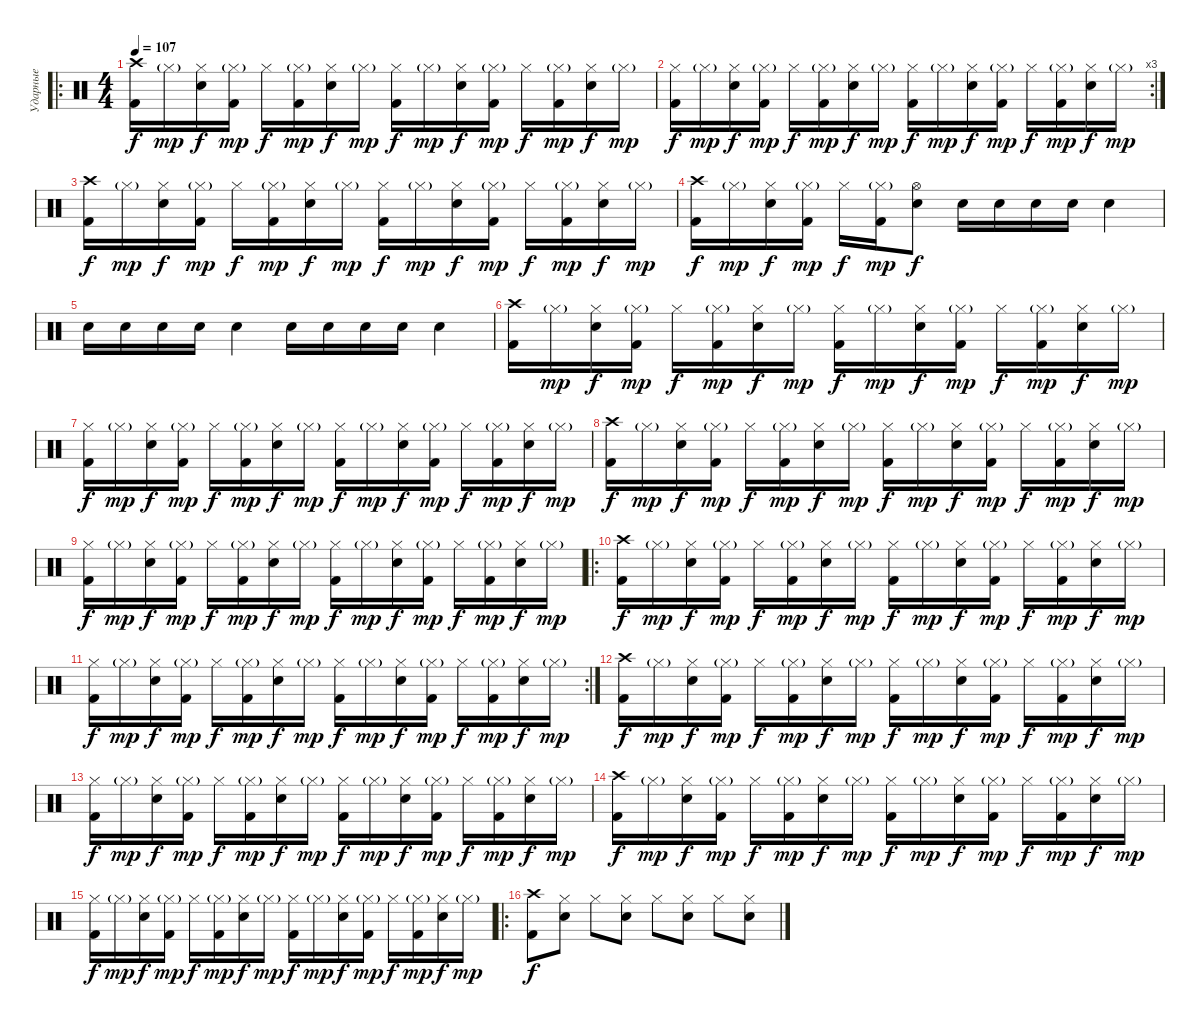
\track ("Ударные" "Ударные") {instrument percussion}
\staff {score}
\articulation defaults
\ro
\ts (4 4)
\tempo 107
\clef neutral
\ks c
("Kick (hit) 2" "Crash high (hit)").16{dy f} "Hi-Hat (closed)"{g}.16{dy mp} ("Electric Snare (hit)" "Hi-Hat (closed)").16{dy f} ("Kick (hit) 2" "Hi-Hat (closed)"{g}).16{dy mp} "Hi-Hat (closed)".16{dy f} ("Kick (hit) 2" "Hi-Hat (closed)"{g}).16{dy mp} ("Electric Snare (hit)" "Hi-Hat (closed)").16{dy f} "Hi-Hat (closed)"{g}.16{dy mp} ("Kick (hit) 2" "Hi-Hat (closed)").16{dy f} "Hi-Hat (closed)"{g}.16{dy mp} ("Electric Snare (hit)" "Hi-Hat (closed)").16{dy f} ("Kick (hit) 2" "Hi-Hat (closed)"{g}).16{dy mp} "Hi-Hat (closed)".16{dy f} ("Kick (hit) 2" "Hi-Hat (closed)"{g}).16{dy mp} ("Electric Snare (hit)" "Hi-Hat (closed)").16{dy f} "Hi-Hat (closed)"{g}.16{dy mp} |
\rc 3
("Kick (hit) 2" "Hi-Hat (closed)").16{dy f} "Hi-Hat (closed)"{g}.16{dy mp} ("Electric Snare (hit)" "Hi-Hat (closed)").16{dy f} ("Kick (hit) 2" "Hi-Hat (closed)"{g}).16{dy mp} "Hi-Hat (closed)".16{dy f} ("Kick (hit) 2" "Hi-Hat (closed)"{g}).16{dy mp} ("Electric Snare (hit)" "Hi-Hat (closed)").16{dy f} "Hi-Hat (closed)"{g}.16{dy mp} ("Kick (hit) 2" "Hi-Hat (closed)").16{dy f} "Hi-Hat (closed)"{g}.16{dy mp} ("Electric Snare (hit)" "Hi-Hat (closed)").16{dy f} ("Kick (hit) 2" "Hi-Hat (closed)"{g}).16{dy mp} "Hi-Hat (closed)".16{dy f} ("Kick (hit) 2" "Hi-Hat (closed)"{g}).16{dy mp} ("Electric Snare (hit)" "Hi-Hat (closed)").16{dy f} "Hi-Hat (closed)"{g}.16{dy mp} |
("Kick (hit) 2" "Crash high (hit)").16{dy f} "Hi-Hat (closed)"{g}.16{dy mp} ("Electric Snare (hit)" "Hi-Hat (closed)").16{dy f} ("Kick (hit) 2" "Hi-Hat (closed)"{g}).16{dy mp} "Hi-Hat (closed)".16{dy f} ("Kick (hit) 2" "Hi-Hat (closed)"{g}).16{dy mp} ("Electric Snare (hit)" "Hi-Hat (closed)").16{dy f} "Hi-Hat (closed)"{g}.16{dy mp} ("Kick (hit) 2" "Hi-Hat (closed)").16{dy f} "Hi-Hat (closed)"{g}.16{dy mp} ("Electric Snare (hit)" "Hi-Hat (closed)").16{dy f} ("Kick (hit) 2" "Hi-Hat (closed)"{g}).16{dy mp} "Hi-Hat (closed)".16{dy f} ("Kick (hit) 2" "Hi-Hat (closed)"{g}).16{dy mp} ("Electric Snare (hit)" "Hi-Hat (closed)").16{dy f} "Hi-Hat (closed)"{g}.16{dy mp} |
("Kick (hit) 2" "Crash high (hit)").16{dy f} "Hi-Hat (closed)"{g}.16{dy mp} ("Electric Snare (hit)" "Hi-Hat (closed)").16{dy f} ("Kick (hit) 2" "Hi-Hat (closed)"{g}).16{dy mp} "Hi-Hat (closed)".16{dy f} ("Kick (hit) 2" "Hi-Hat (closed)"{g}).16{dy mp} ("Electric Snare (hit)" "Hi-Hat (open)").8{dy f} "Electric Snare (hit)".16 "Electric Snare (hit)".16 "Electric Snare (hit)".16 "Electric Snare (hit)".16 "Electric Snare (hit)".4 |
"Electric Snare (hit)".16 "Electric Snare (hit)".16 "Electric Snare (hit)".16 "Electric Snare (hit)".16 "Electric Snare (hit)".4 "Electric Snare (hit)".16 "Electric Snare (hit)".16 "Electric Snare (hit)".16 "Electric Snare (hit)".16 "Electric Snare (hit)".4 |
("Kick (hit) 2" "Crash high (hit)").16 "Hi-Hat (closed)"{g}.16{dy mp} ("Electric Snare (hit)" "Hi-Hat (closed)").16{dy f} ("Kick (hit) 2" "Hi-Hat (closed)"{g}).16{dy mp} "Hi-Hat (closed)".16{dy f} ("Kick (hit) 2" "Hi-Hat (closed)"{g}).16{dy mp} ("Electric Snare (hit)" "Hi-Hat (closed)").16{dy f} "Hi-Hat (closed)"{g}.16{dy mp} ("Kick (hit) 2" "Hi-Hat (closed)").16{dy f} "Hi-Hat (closed)"{g}.16{dy mp} ("Electric Snare (hit)" "Hi-Hat (closed)").16{dy f} ("Kick (hit) 2" "Hi-Hat (closed)"{g}).16{dy mp} "Hi-Hat (closed)".16{dy f} ("Kick (hit) 2" "Hi-Hat (closed)"{g}).16{dy mp} ("Electric Snare (hit)" "Hi-Hat (closed)").16{dy f} "Hi-Hat (closed)"{g}.16{dy mp} |
("Kick (hit) 2" "Hi-Hat (closed)").16{dy f} "Hi-Hat (closed)"{g}.16{dy mp} ("Electric Snare (hit)" "Hi-Hat (closed)").16{dy f} ("Kick (hit) 2" "Hi-Hat (closed)"{g}).16{dy mp} "Hi-Hat (closed)".16{dy f} ("Kick (hit) 2" "Hi-Hat (closed)"{g}).16{dy mp} ("Electric Snare (hit)" "Hi-Hat (closed)").16{dy f} "Hi-Hat (closed)"{g}.16{dy mp} ("Kick (hit) 2" "Hi-Hat (closed)").16{dy f} "Hi-Hat (closed)"{g}.16{dy mp} ("Electric Snare (hit)" "Hi-Hat (closed)").16{dy f} ("Kick (hit) 2" "Hi-Hat (closed)"{g}).16{dy mp} "Hi-Hat (closed)".16{dy f} ("Kick (hit) 2" "Hi-Hat (closed)"{g}).16{dy mp} ("Electric Snare (hit)" "Hi-Hat (closed)").16{dy f} "Hi-Hat (closed)"{g}.16{dy mp} |
("Kick (hit) 2" "Crash high (hit)").16{dy f} "Hi-Hat (closed)"{g}.16{dy mp} ("Electric Snare (hit)" "Hi-Hat (closed)").16{dy f} ("Kick (hit) 2" "Hi-Hat (closed)"{g}).16{dy mp} "Hi-Hat (closed)".16{dy f} ("Kick (hit) 2" "Hi-Hat (closed)"{g}).16{dy mp} ("Electric Snare (hit)" "Hi-Hat (closed)").16{dy f} "Hi-Hat (closed)"{g}.16{dy mp} ("Kick (hit) 2" "Hi-Hat (closed)").16{dy f} "Hi-Hat (closed)"{g}.16{dy mp} ("Electric Snare (hit)" "Hi-Hat (closed)").16{dy f} ("Kick (hit) 2" "Hi-Hat (closed)"{g}).16{dy mp} "Hi-Hat (closed)".16{dy f} ("Kick (hit) 2" "Hi-Hat (closed)"{g}).16{dy mp} ("Electric Snare (hit)" "Hi-Hat (closed)").16{dy f} "Hi-Hat (closed)"{g}.16{dy mp} |
("Kick (hit) 2" "Hi-Hat (closed)").16{dy f} "Hi-Hat (closed)"{g}.16{dy mp} ("Electric Snare (hit)" "Hi-Hat (closed)").16{dy f} ("Kick (hit) 2" "Hi-Hat (closed)"{g}).16{dy mp} "Hi-Hat (closed)".16{dy f} ("Kick (hit) 2" "Hi-Hat (closed)"{g}).16{dy mp} ("Electric Snare (hit)" "Hi-Hat (closed)").16{dy f} "Hi-Hat (closed)"{g}.16{dy mp} ("Kick (hit) 2" "Hi-Hat (closed)").16{dy f} "Hi-Hat (closed)"{g}.16{dy mp} ("Electric Snare (hit)" "Hi-Hat (closed)").16{dy f} ("Kick (hit) 2" "Hi-Hat (closed)"{g}).16{dy mp} "Hi-Hat (closed)".16{dy f} ("Kick (hit) 2" "Hi-Hat (closed)"{g}).16{dy mp} ("Electric Snare (hit)" "Hi-Hat (closed)").16{dy f} "Hi-Hat (closed)"{g}.16{dy mp} |
\ro
("Kick (hit) 2" "Crash high (hit)").16{dy f} "Hi-Hat (closed)"{g}.16{dy mp} ("Electric Snare (hit)" "Hi-Hat (closed)").16{dy f} ("Kick (hit) 2" "Hi-Hat (closed)"{g}).16{dy mp} "Hi-Hat (closed)".16{dy f} ("Kick (hit) 2" "Hi-Hat (closed)"{g}).16{dy mp} ("Electric Snare (hit)" "Hi-Hat (closed)").16{dy f} "Hi-Hat (closed)"{g}.16{dy mp} ("Kick (hit) 2" "Hi-Hat (closed)").16{dy f} "Hi-Hat (closed)"{g}.16{dy mp} ("Electric Snare (hit)" "Hi-Hat (closed)").16{dy f} ("Kick (hit) 2" "Hi-Hat (closed)"{g}).16{dy mp} "Hi-Hat (closed)".16{dy f} ("Kick (hit) 2" "Hi-Hat (closed)"{g}).16{dy mp} ("Electric Snare (hit)" "Hi-Hat (closed)").16{dy f} "Hi-Hat (closed)"{g}.16{dy mp} |
\rc 2
("Kick (hit) 2" "Hi-Hat (closed)").16{dy f} "Hi-Hat (closed)"{g}.16{dy mp} ("Electric Snare (hit)" "Hi-Hat (closed)").16{dy f} ("Kick (hit) 2" "Hi-Hat (closed)"{g}).16{dy mp} "Hi-Hat (closed)".16{dy f} ("Kick (hit) 2" "Hi-Hat (closed)"{g}).16{dy mp} ("Electric Snare (hit)" "Hi-Hat (closed)").16{dy f} "Hi-Hat (closed)"{g}.16{dy mp} ("Kick (hit) 2" "Hi-Hat (closed)").16{dy f} "Hi-Hat (closed)"{g}.16{dy mp} ("Electric Snare (hit)" "Hi-Hat (closed)").16{dy f} ("Kick (hit) 2" "Hi-Hat (closed)"{g}).16{dy mp} "Hi-Hat (closed)".16{dy f} ("Kick (hit) 2" "Hi-Hat (closed)"{g}).16{dy mp} ("Electric Snare (hit)" "Hi-Hat (closed)").16{dy f} "Hi-Hat (closed)"{g}.16{dy mp} |
("Kick (hit) 2" "Crash high (hit)").16{dy f} "Hi-Hat (closed)"{g}.16{dy mp} ("Electric Snare (hit)" "Hi-Hat (closed)").16{dy f} ("Kick (hit) 2" "Hi-Hat (closed)"{g}).16{dy mp} "Hi-Hat (closed)".16{dy f} ("Kick (hit) 2" "Hi-Hat (closed)"{g}).16{dy mp} ("Electric Snare (hit)" "Hi-Hat (closed)").16{dy f} "Hi-Hat (closed)"{g}.16{dy mp} ("Kick (hit) 2" "Hi-Hat (closed)").16{dy f} "Hi-Hat (closed)"{g}.16{dy mp} ("Electric Snare (hit)" "Hi-Hat (closed)").16{dy f} ("Kick (hit) 2" "Hi-Hat (closed)"{g}).16{dy mp} "Hi-Hat (closed)".16{dy f} ("Kick (hit) 2" "Hi-Hat (closed)"{g}).16{dy mp} ("Electric Snare (hit)" "Hi-Hat (closed)").16{dy f} "Hi-Hat (closed)"{g}.16{dy mp} |
("Kick (hit) 2" "Hi-Hat (closed)").16{dy f} "Hi-Hat (closed)"{g}.16{dy mp} ("Electric Snare (hit)" "Hi-Hat (closed)").16{dy f} ("Kick (hit) 2" "Hi-Hat (closed)"{g}).16{dy mp} "Hi-Hat (closed)".16{dy f} ("Kick (hit) 2" "Hi-Hat (closed)"{g}).16{dy mp} ("Electric Snare (hit)" "Hi-Hat (closed)").16{dy f} "Hi-Hat (closed)"{g}.16{dy mp} ("Kick (hit) 2" "Hi-Hat (closed)").16{dy f} "Hi-Hat (closed)"{g}.16{dy mp} ("Electric Snare (hit)" "Hi-Hat (closed)").16{dy f} ("Kick (hit) 2" "Hi-Hat (closed)"{g}).16{dy mp} "Hi-Hat (closed)".16{dy f} ("Kick (hit) 2" "Hi-Hat (closed)"{g}).16{dy mp} ("Electric Snare (hit)" "Hi-Hat (closed)").16{dy f} "Hi-Hat (closed)"{g}.16{dy mp} |
("Kick (hit) 2" "Crash high (hit)").16{dy f} "Hi-Hat (closed)"{g}.16{dy mp} ("Electric Snare (hit)" "Hi-Hat (closed)").16{dy f} ("Kick (hit) 2" "Hi-Hat (closed)"{g}).16{dy mp} "Hi-Hat (closed)".16{dy f} ("Kick (hit) 2" "Hi-Hat (closed)"{g}).16{dy mp} ("Electric Snare (hit)" "Hi-Hat (closed)").16{dy f} "Hi-Hat (closed)"{g}.16{dy mp} ("Kick (hit) 2" "Hi-Hat (closed)").16{dy f} "Hi-Hat (closed)"{g}.16{dy mp} ("Electric Snare (hit)" "Hi-Hat (closed)").16{dy f} ("Kick (hit) 2" "Hi-Hat (closed)"{g}).16{dy mp} "Hi-Hat (closed)".16{dy f} ("Kick (hit) 2" "Hi-Hat (closed)"{g}).16{dy mp} ("Electric Snare (hit)" "Hi-Hat (closed)").16{dy f} "Hi-Hat (closed)"{g}.16{dy mp} |
("Kick (hit) 2" "Hi-Hat (closed)").16{dy f} "Hi-Hat (closed)"{g}.16{dy mp} ("Electric Snare (hit)" "Hi-Hat (closed)").16{dy f} ("Kick (hit) 2" "Hi-Hat (closed)"{g}).16{dy mp} "Hi-Hat (closed)".16{dy f} ("Kick (hit) 2" "Hi-Hat (closed)"{g}).16{dy mp} ("Electric Snare (hit)" "Hi-Hat (closed)").16{dy f} "Hi-Hat (closed)"{g}.16{dy mp} ("Kick (hit) 2" "Hi-Hat (closed)").16{dy f} "Hi-Hat (closed)"{g}.16{dy mp} ("Electric Snare (hit)" "Hi-Hat (closed)").16{dy f} ("Kick (hit) 2" "Hi-Hat (closed)"{g}).16{dy mp} "Hi-Hat (closed)".16{dy f} ("Kick (hit) 2" "Hi-Hat (closed)"{g}).16{dy mp} ("Electric Snare (hit)" "Hi-Hat (closed)").16{dy f} "Hi-Hat (closed)"{g}.16{dy mp} |
\ro
("Kick (hit) 2" "Crash high (hit)").8{dy f} ("Electric Snare (hit)" "Hi-Hat (closed)").8 "Hi-Hat (closed)".8 ("Electric Snare (hit)" "Hi-Hat (closed)").8 "Hi-Hat (closed)".8 ("Electric Snare (hit)" "Hi-Hat (closed)").8 "Hi-Hat (closed)".8 ("Electric Snare (hit)" "Hi-Hat (closed)").8
